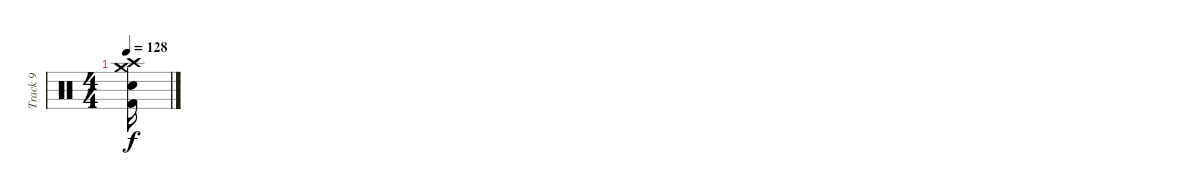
\track ("Track 9" "Track 9") {instrument percussion}
\staff {score}
\articulation defaults
\ts (4 4)
\tempo 128
\clef neutral
\ks c
("Crash medium (hit)" "Crash high (hit)" "Electric Snare (hit)" "Kick (hit) 2").16{dy f}
